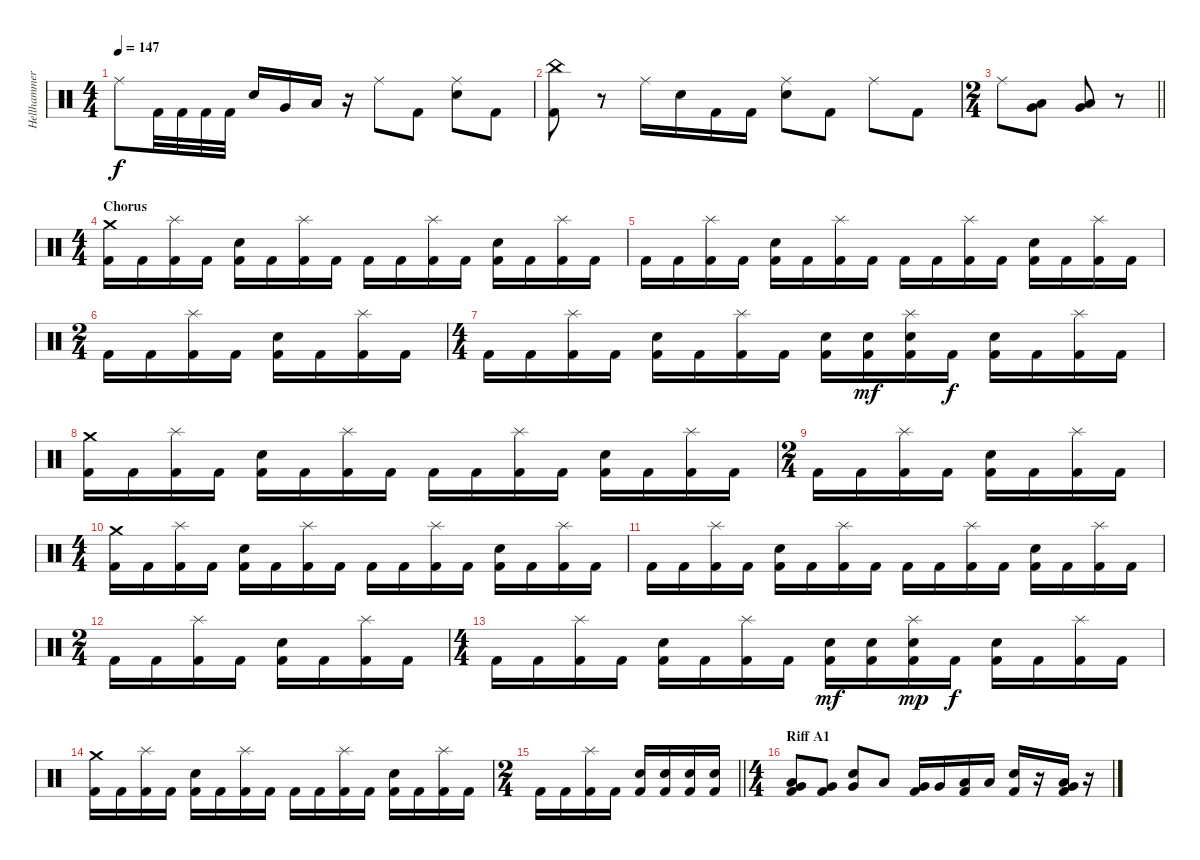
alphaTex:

\track ("Hellhammer" "Hellhammer") {instrument percussion}
\staff {score}
\articulation defaults
\ts (4 4)
\tempo 147
\clef neutral
\ks c "Ride (middle)".8{dy f} "Kick (hit) 2".32 "Kick (hit) 2".32 "Kick (hit) 2".32 "Kick (hit) 2".32 "Electric Snare (hit)".16 "Very Low Tom (hit)".16 "Low Floor Tom (hit)".16
r.16 "Ride (middle)".8 "Kick (hit) 2".8 ("Ride (middle)" "Electric Snare (hit)").8 "Kick (hit) 2".8 |
("China (hit)" "Kick (hit) 2").8 r.8 "Ride (middle)".16 "Electric Snare (hit)".16 "Kick (hit) 2".16 "Kick (hit) 2".16 ("Ride (middle)" "Electric Snare (hit)").8 "Kick (hit) 2".8 "Ride (middle)".8 "Kick (hit) 2".8 |
\ts (2 4)
\barLineRight lightlight "Ride (middle)".8
("Very Low Tom (hit)" "Low Floor Tom (hit)").8 ("Very Low Tom (hit)" "Low Floor Tom (hit)").8 r.8 |
\ts (4 4)
\section ("" "Chorus")
("Crash medium (hit)" "Kick (hit) 2").16 "Kick (hit) 2".16 ("Splash (hit)" "Kick (hit) 2").16 "Kick (hit) 2".16 ("Electric Snare (hit)" "Kick (hit) 2").16 "Kick (hit) 2".16 ("Splash (hit)" "Kick (hit) 2").16 "Kick (hit) 2".16 "Kick (hit) 2".16 "Kick (hit) 2".16 ("Splash (hit)" "Kick (hit) 2").16 "Kick (hit) 2".16 ("Electric Snare (hit)" "Kick (hit) 2").16 "Kick (hit) 2".16 ("Splash (hit)" "Kick (hit) 2").16 "Kick (hit) 2".16 |
"Kick (hit) 2".16 "Kick (hit) 2".16 ("Splash (hit)" "Kick (hit) 2").16 "Kick (hit) 2".16 ("Electric Snare (hit)" "Kick (hit) 2").16 "Kick (hit) 2".16 ("Splash (hit)" "Kick (hit) 2").16 "Kick (hit) 2".16 "Kick (hit) 2".16 "Kick (hit) 2".16 ("Splash (hit)" "Kick (hit) 2").16 "Kick (hit) 2".16 ("Electric Snare (hit)" "Kick (hit) 2").16 "Kick (hit) 2".16 ("Splash (hit)" "Kick (hit) 2").16 "Kick (hit) 2".16 |
\ts (2 4)
"Kick (hit) 2".16 "Kick (hit) 2".16 ("Splash (hit)" "Kick (hit) 2").16 "Kick (hit) 2".16 ("Electric Snare (hit)" "Kick (hit) 2").16 "Kick (hit) 2".16 ("Splash (hit)" "Kick (hit) 2").16 "Kick (hit) 2".16 |
\ts (4 4)
"Kick (hit) 2".16 "Kick (hit) 2".16 ("Splash (hit)" "Kick (hit) 2").16 "Kick (hit) 2".16 ("Electric Snare (hit)" "Kick (hit) 2").16 "Kick (hit) 2".16 ("Splash (hit)" "Kick (hit) 2").16 "Kick (hit) 2".16 ("Electric Snare (hit)" "Kick (hit) 2").16 ("Electric Snare (hit)" "Kick (hit) 2").16{dy mf} ("Splash (hit)" "Electric Snare (hit)" "Kick (hit) 2").16 "Kick (hit) 2".16{dy f} ("Electric Snare (hit)" "Kick (hit) 2").16 "Kick (hit) 2".16 ("Splash (hit)" "Kick (hit) 2").16 "Kick (hit) 2".16 |
("Crash medium (hit)" "Kick (hit) 2").16 "Kick (hit) 2".16 ("Splash (hit)" "Kick (hit) 2").16 "Kick (hit) 2".16 ("Electric Snare (hit)" "Kick (hit) 2").16 "Kick (hit) 2".16 ("Splash (hit)" "Kick (hit) 2").16 "Kick (hit) 2".16 "Kick (hit) 2".16 "Kick (hit) 2".16 ("Splash (hit)" "Kick (hit) 2").16 "Kick (hit) 2".16 ("Electric Snare (hit)" "Kick (hit) 2").16 "Kick (hit) 2".16 ("Splash (hit)" "Kick (hit) 2").16 "Kick (hit) 2".16 |
\ts (2 4)
"Kick (hit) 2".16 "Kick (hit) 2".16 ("Splash (hit)" "Kick (hit) 2").16 "Kick (hit) 2".16 ("Electric Snare (hit)" "Kick (hit) 2").16 "Kick (hit) 2".16 ("Splash (hit)" "Kick (hit) 2").16 "Kick (hit) 2".16 |
\ts (4 4)
("Crash medium (hit)" "Kick (hit) 2").16 "Kick (hit) 2".16 ("Splash (hit)" "Kick (hit) 2").16 "Kick (hit) 2".16 ("Electric Snare (hit)" "Kick (hit) 2").16 "Kick (hit) 2".16 ("Splash (hit)" "Kick (hit) 2").16 "Kick (hit) 2".16 "Kick (hit) 2".16 "Kick (hit) 2".16 ("Splash (hit)" "Kick (hit) 2").16 "Kick (hit) 2".16 ("Electric Snare (hit)" "Kick (hit) 2").16 "Kick (hit) 2".16 ("Splash (hit)" "Kick (hit) 2").16 "Kick (hit) 2".16 |
"Kick (hit) 2".16 "Kick (hit) 2".16 ("Splash (hit)" "Kick (hit) 2").16 "Kick (hit) 2".16 ("Electric Snare (hit)" "Kick (hit) 2").16 "Kick (hit) 2".16 ("Splash (hit)" "Kick (hit) 2").16 "Kick (hit) 2".16 "Kick (hit) 2".16 "Kick (hit) 2".16 ("Splash (hit)" "Kick (hit) 2").16 "Kick (hit) 2".16 ("Electric Snare (hit)" "Kick (hit) 2").16 "Kick (hit) 2".16 ("Splash (hit)" "Kick (hit) 2").16 "Kick (hit) 2".16 |
\ts (2 4)
"Kick (hit) 2".16 "Kick (hit) 2".16 ("Splash (hit)" "Kick (hit) 2").16 "Kick (hit) 2".16 ("Electric Snare (hit)" "Kick (hit) 2").16 "Kick (hit) 2".16 ("Splash (hit)" "Kick (hit) 2").16 "Kick (hit) 2".16 |
\ts (4 4)
"Kick (hit) 2".16 "Kick (hit) 2".16 ("Splash (hit)" "Kick (hit) 2").16 "Kick (hit) 2".16 ("Electric Snare (hit)" "Kick (hit) 2").16 "Kick (hit) 2".16 ("Splash (hit)" "Kick (hit) 2").16 "Kick (hit) 2".16 ("Electric Snare (hit)" "Kick (hit) 2").16{dy mf} ("Electric Snare (hit)" "Kick (hit) 2").16 ("Splash (hit)" "Electric Snare (hit)" "Kick (hit) 2").16{dy mp} "Kick (hit) 2".16{dy f} ("Electric Snare (hit)" "Kick (hit) 2").16 "Kick (hit) 2".16 ("Splash (hit)" "Kick (hit) 2").16 "Kick (hit) 2".16 |
("Crash medium (hit)" "Kick (hit) 2").16 "Kick (hit) 2".16 ("Splash (hit)" "Kick (hit) 2").16 "Kick (hit) 2".16 ("Electric Snare (hit)" "Kick (hit) 2").16 "Kick (hit) 2".16 ("Splash (hit)" "Kick (hit) 2").16 "Kick (hit) 2".16 "Kick (hit) 2".16 "Kick (hit) 2".16 ("Splash (hit)" "Kick (hit) 2").16 "Kick (hit) 2".16 ("Electric Snare (hit)" "Kick (hit) 2").16 "Kick (hit) 2".16 ("Splash (hit)" "Kick (hit) 2").16 "Kick (hit) 2".16 |
\ts (2 4)
\barLineRight lightlight "Kick (hit) 2".16 "Kick (hit) 2".16
("Splash (hit)" "Kick (hit) 2").16 "Kick (hit) 2".16 ("Electric Snare (hit)" "Kick (hit) 2").16 ("Electric Snare (hit)" "Kick (hit) 2").16 ("Electric Snare (hit)" "Kick (hit) 2").16 ("Electric Snare (hit)" "Kick (hit) 2").16 |
\ts (4 4)
\section ("" "Riff A1")
("Very Low Tom (hit)" "Low Floor Tom (hit)" "Kick (hit) 2").8 ("Very Low Tom (hit)" "Kick (hit) 2").8 ("Very Low Tom (hit)" "Electric Snare (hit)").8 "Low Floor Tom (hit)".8 ("Very Low Tom (hit)" "Kick (hit) 2").16 "Very Low Tom (hit)".16 ("Low Floor Tom (hit)" "Kick (hit) 2").16 "Low Floor Tom (hit)".16 ("Electric Snare (hit)" "Kick (hit) 2").16 r.16 ("Very Low Tom (hit)" "Low Floor Tom (hit)" "Kick (hit) 2").16 r.16
